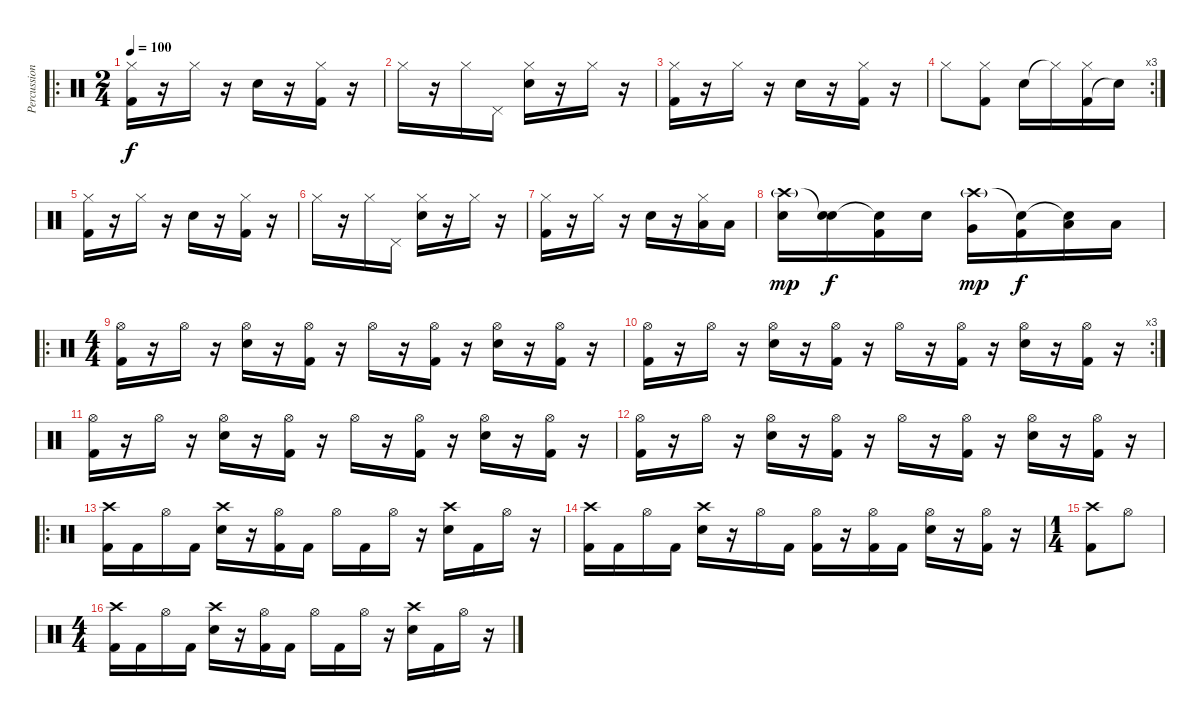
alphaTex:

\track ("Percussion" "Percussion") {instrument percussion}
\staff {score}
\articulation defaults
\ro
\ts (2 4)
\tempo 100
\clef neutral
\ks c
("Kick (hit) 2" "Hi-Hat (closed)").16{dy f} r.16 "Hi-Hat (closed)".16 r.16 "Electric Snare (hit)".16 r.16 ("Kick (hit) 2" "Hi-Hat (closed)").16 r.16 |
"Hi-Hat (closed)".16 r.16 "Hi-Hat (closed)".16 "Pedal Hi-Hat (hit)".16 ("Electric Snare (hit)" "Hi-Hat (closed)").16 r.16 "Hi-Hat (closed)".16 r.16 |
("Kick (hit) 2" "Hi-Hat (closed)").16 r.16 "Hi-Hat (closed)".16 r.16 "Electric Snare (hit)".16 r.16 ("Kick (hit) 2" "Hi-Hat (closed)").16 r.16 |
\rc 3 "Hi-Hat (closed)".8
("Kick (hit) 2" "Hi-Hat (closed)").8 "Electric Snare (hit)".16 "Hi-Hat (closed)"{t}.16 ("Kick (hit) 2" "Hi-Hat (closed)").16 "Snare (hit)"{t}.16 |
("Kick (hit) 2" "Hi-Hat (closed)").16 r.16 "Hi-Hat (closed)".16 r.16 "Electric Snare (hit)".16 r.16 ("Kick (hit) 2" "Hi-Hat (closed)").16 r.16 |
"Hi-Hat (closed)".16 r.16 "Hi-Hat (closed)".16 "Pedal Hi-Hat (hit)".16 ("Electric Snare (hit)" "Hi-Hat (closed)").16 r.16 "Hi-Hat (closed)".16 r.16 |
("Kick (hit) 2" "Hi-Hat (closed)").16 r.16 "Hi-Hat (closed)".16 r.16 "Electric Snare (hit)".16 r.16 ("Low Tom (hit)" "Hi-Hat (closed)").16 "Low Tom (hit)".16 |
("Electric Snare (hit)" "Crash high (hit)"{g}).16{dy mp} ("Electric Snare (hit)" "Snare (hit)"{t}).16{dy f} ("Kick (hit) 2" "Snare (hit)"{t}).16 "Electric Snare (hit)".16 ("Very Low Tom (hit)" "Crash high (hit)"{g}).16{dy mp} ("Kick (hit) 2" "Snare (hit)"{t}).16{dy f} ("Low Floor Tom (hit)" "Snare (hit)"{t}).16 "Low Floor Tom (hit)".16 |
\ro
\ts (4 4)
("Kick (hit) 2" "Hi-Hat (open)").16 r.16 "Hi-Hat (open)".16 r.16 ("Electric Snare (hit)" "Hi-Hat (open)").16 r.16 ("Kick (hit) 2" "Hi-Hat (open)").16 r.16 "Hi-Hat (open)".16 r.16 ("Kick (hit) 2" "Hi-Hat (open)").16 r.16 ("Electric Snare (hit)" "Hi-Hat (open)").16 r.16 ("Kick (hit) 2" "Hi-Hat (open)").16 r.16 |
\rc 3
("Kick (hit) 2" "Hi-Hat (open)").16 r.16 "Hi-Hat (open)".16 r.16 ("Electric Snare (hit)" "Hi-Hat (open)").16 r.16 ("Kick (hit) 2" "Hi-Hat (open)").16 r.16 "Hi-Hat (open)".16 r.16 ("Kick (hit) 2" "Hi-Hat (open)").16 r.16 ("Electric Snare (hit)" "Hi-Hat (open)").16 r.16 ("Kick (hit) 2" "Hi-Hat (open)").16 r.16 |
("Kick (hit) 2" "Hi-Hat (open)").16 r.16 "Hi-Hat (open)".16 r.16 ("Electric Snare (hit)" "Hi-Hat (open)").16 r.16 ("Kick (hit) 2" "Hi-Hat (open)").16 r.16 "Hi-Hat (open)".16 r.16 ("Kick (hit) 2" "Hi-Hat (open)").16 r.16 ("Electric Snare (hit)" "Hi-Hat (open)").16 r.16 ("Kick (hit) 2" "Hi-Hat (open)").16 r.16 |
("Kick (hit) 2" "Hi-Hat (open)").16 r.16 "Hi-Hat (open)".16 r.16 ("Electric Snare (hit)" "Hi-Hat (open)").16 r.16 ("Kick (hit) 2" "Hi-Hat (open)").16 r.16 "Hi-Hat (open)".16 r.16 ("Kick (hit) 2" "Hi-Hat (open)").16 r.16 ("Electric Snare (hit)" "Hi-Hat (open)").16 r.16 ("Kick (hit) 2" "Hi-Hat (open)").16 r.16 |
\ro
("Crash high (hit)" "Kick (hit) 2").16 "Kick (hit) 2".16 "Hi-Hat (open)".16 "Kick (hit) 2".16 ("Crash high (hit)" "Electric Snare (hit)").16 r.16 ("Hi-Hat (open)" "Kick (hit) 2").16 "Kick (hit) 2".16 "Hi-Hat (open)".16 "Kick (hit) 2".16 "Hi-Hat (open)".16 r.16 ("Crash high (hit)" "Electric Snare (hit)").16 "Kick (hit) 2".16 "Hi-Hat (open)".16 r.16 |
("Crash high (hit)" "Kick (hit) 2").16 "Kick (hit) 2".16 "Hi-Hat (open)".16 "Kick (hit) 2".16 ("Crash high (hit)" "Electric Snare (hit)").16 r.16 "Hi-Hat (open)".16 "Kick (hit) 2".16 ("Hi-Hat (open)" "Kick (hit) 2").16 r.16 ("Hi-Hat (open)" "Kick (hit) 2").16 "Kick (hit) 2".16 ("Hi-Hat (open)" "Electric Snare (hit)").16 r.16 ("Hi-Hat (open)" "Kick (hit) 2").16 r.16 |
\ts (1 4)
("Kick (hit) 2" "Crash high (hit)").8 "Hi-Hat (open)".8 |
\ts (4 4)
("Crash high (hit)" "Kick (hit) 2").16 "Kick (hit) 2".16 "Hi-Hat (open)".16 "Kick (hit) 2".16 ("Crash high (hit)" "Electric Snare (hit)").16 r.16 ("Hi-Hat (open)" "Kick (hit) 2").16 "Kick (hit) 2".16 "Hi-Hat (open)".16 "Kick (hit) 2".16 "Hi-Hat (open)".16 r.16 ("Crash high (hit)" "Electric Snare (hit)").16 "Kick (hit) 2".16 "Hi-Hat (open)".16 r.16
